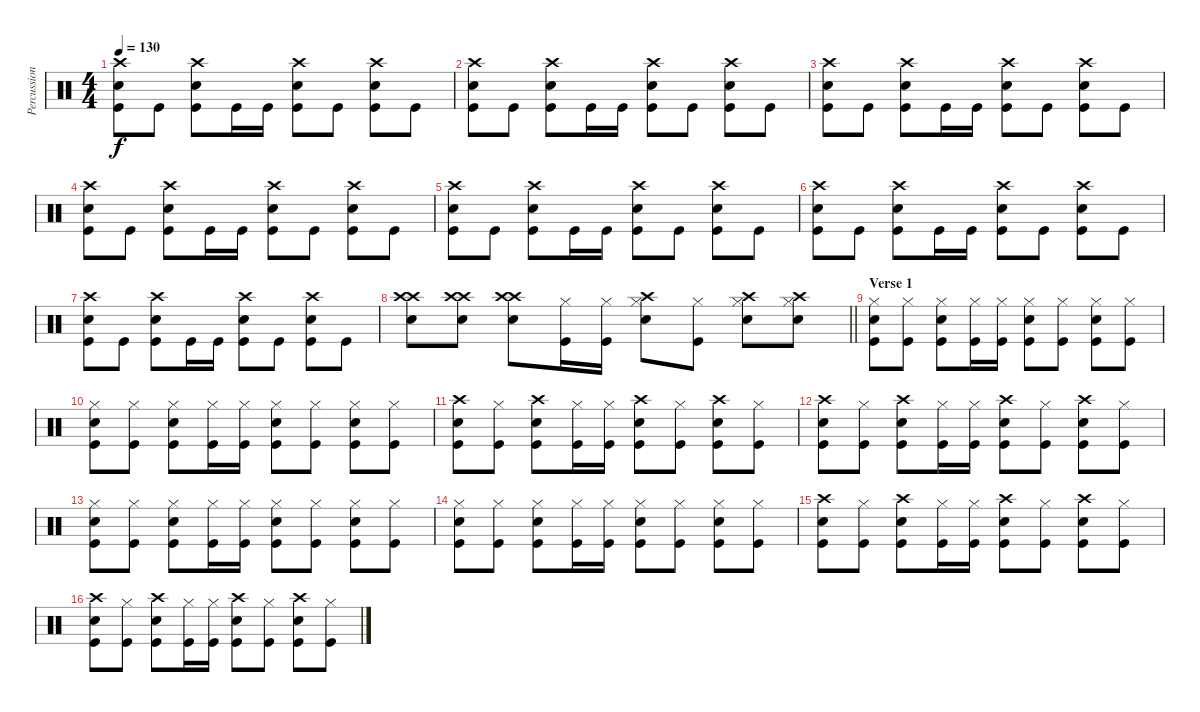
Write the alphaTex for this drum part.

\track ("Percussions" "Percussion") {instrument percussion}
\staff {score}
\articulation defaults
\ts (4 4)
\tempo 130
\clef neutral
\ks c
("Crash high (hit)" "Kick (hit)" "Snare (hit) 2").8{dy f} "Kick (hit)".8 ("Crash high (hit)" "Kick (hit)" "Snare (hit) 2").8 "Kick (hit)".16 "Kick (hit)".16 ("Crash high (hit)" "Kick (hit)" "Snare (hit) 2").8 "Kick (hit)".8 ("Crash high (hit)" "Kick (hit)" "Snare (hit) 2").8 "Kick (hit)".8 |
("Crash high (hit)" "Kick (hit)" "Snare (hit) 2").8 "Kick (hit)".8 ("Crash high (hit)" "Kick (hit)" "Snare (hit) 2").8 "Kick (hit)".16 "Kick (hit)".16 ("Crash high (hit)" "Kick (hit)" "Snare (hit) 2").8 "Kick (hit)".8 ("Crash high (hit)" "Kick (hit)" "Snare (hit) 2").8 "Kick (hit)".8 |
("Crash high (hit)" "Kick (hit)" "Snare (hit) 2").8 "Kick (hit)".8 ("Crash high (hit)" "Kick (hit)" "Snare (hit) 2").8 "Kick (hit)".16 "Kick (hit)".16 ("Crash high (hit)" "Kick (hit)" "Snare (hit) 2").8 "Kick (hit)".8 ("Crash high (hit)" "Kick (hit)" "Snare (hit) 2").8 "Kick (hit)".8 |
("Crash high (hit)" "Kick (hit)" "Snare (hit) 2").8 "Kick (hit)".8 ("Crash high (hit)" "Kick (hit)" "Snare (hit) 2").8 "Kick (hit)".16 "Kick (hit)".16 ("Crash high (hit)" "Kick (hit)" "Snare (hit) 2").8 "Kick (hit)".8 ("Crash high (hit)" "Kick (hit)" "Snare (hit) 2").8 "Kick (hit)".8 |
("Crash high (hit)" "Kick (hit)" "Snare (hit) 2").8 "Kick (hit)".8 ("Crash high (hit)" "Kick (hit)" "Snare (hit) 2").8 "Kick (hit)".16 "Kick (hit)".16 ("Crash high (hit)" "Kick (hit)" "Snare (hit) 2").8 "Kick (hit)".8 ("Crash high (hit)" "Kick (hit)" "Snare (hit) 2").8 "Kick (hit)".8 |
("Crash high (hit)" "Kick (hit)" "Snare (hit) 2").8 "Kick (hit)".8 ("Crash high (hit)" "Kick (hit)" "Snare (hit) 2").8 "Kick (hit)".16 "Kick (hit)".16 ("Crash high (hit)" "Kick (hit)" "Snare (hit) 2").8 "Kick (hit)".8 ("Crash high (hit)" "Kick (hit)" "Snare (hit) 2").8 "Kick (hit)".8 |
("Crash high (hit)" "Kick (hit)" "Snare (hit) 2").8 "Kick (hit)".8 ("Crash high (hit)" "Kick (hit)" "Snare (hit) 2").8 "Kick (hit)".16 "Kick (hit)".16 ("Crash high (hit)" "Kick (hit)" "Snare (hit) 2").8 "Kick (hit)".8 ("Crash high (hit)" "Kick (hit)" "Snare (hit) 2").8 "Kick (hit)".8 |
\barLineRight lightlight
("Crash high (hit)" "Snare (hit) 2" "Crash high (hit)").8 ("Crash high (hit)" "Snare (hit) 2" "Crash high (hit)").8 ("Crash high (hit)" "Snare (hit) 2" "Crash high (hit)").8 ("Kick (hit)" "Hi-Hat (closed)").16 ("Kick (hit)" "Hi-Hat (closed)").16 ("Hi-Hat (closed)" "Snare (hit) 2" "Crash high (hit)").8 ("Kick (hit)" "Hi-Hat (closed)").8 ("Hi-Hat (closed)" "Snare (hit) 2" "Crash high (hit)").8 ("Hi-Hat (closed)" "Snare (hit) 2" "Crash high (hit)").8 |
\section ("" "Verse 1")
("Snare (hit) 2" "Kick (hit)" "Hi-Hat (closed)").8 ("Kick (hit)" "Hi-Hat (closed)").8 ("Snare (hit) 2" "Kick (hit)" "Hi-Hat (closed)").8 ("Kick (hit)" "Hi-Hat (closed)").16 ("Kick (hit)" "Hi-Hat (closed)").16 ("Snare (hit) 2" "Kick (hit)" "Hi-Hat (closed)").8 ("Kick (hit)" "Hi-Hat (closed)").8 ("Snare (hit) 2" "Kick (hit)" "Hi-Hat (closed)").8 ("Kick (hit)" "Hi-Hat (closed)").8 |
("Snare (hit) 2" "Kick (hit)" "Hi-Hat (closed)").8 ("Kick (hit)" "Hi-Hat (closed)").8 ("Snare (hit) 2" "Kick (hit)" "Hi-Hat (closed)").8 ("Kick (hit)" "Hi-Hat (closed)").16 ("Kick (hit)" "Hi-Hat (closed)").16 ("Snare (hit) 2" "Kick (hit)" "Hi-Hat (closed)").8 ("Kick (hit)" "Hi-Hat (closed)").8 ("Snare (hit) 2" "Kick (hit)" "Hi-Hat (closed)").8 ("Kick (hit)" "Hi-Hat (closed)").8 |
("Snare (hit) 2" "Kick (hit)" "Crash high (hit)").8 ("Kick (hit)" "Hi-Hat (closed)").8 ("Snare (hit) 2" "Kick (hit)" "Crash high (hit)").8 ("Kick (hit)" "Hi-Hat (closed)").16 ("Kick (hit)" "Hi-Hat (closed)").16 ("Snare (hit) 2" "Kick (hit)" "Crash high (hit)").8 ("Kick (hit)" "Hi-Hat (closed)").8 ("Snare (hit) 2" "Kick (hit)" "Crash high (hit)").8 ("Kick (hit)" "Hi-Hat (closed)").8 |
("Snare (hit) 2" "Kick (hit)" "Crash high (hit)").8 ("Kick (hit)" "Hi-Hat (closed)").8 ("Snare (hit) 2" "Kick (hit)" "Crash high (hit)").8 ("Kick (hit)" "Hi-Hat (closed)").16 ("Kick (hit)" "Hi-Hat (closed)").16 ("Snare (hit) 2" "Kick (hit)" "Crash high (hit)").8 ("Kick (hit)" "Hi-Hat (closed)").8 ("Snare (hit) 2" "Kick (hit)" "Crash high (hit)").8 ("Kick (hit)" "Hi-Hat (closed)").8 |
("Snare (hit) 2" "Kick (hit)" "Hi-Hat (closed)").8 ("Kick (hit)" "Hi-Hat (closed)").8 ("Snare (hit) 2" "Kick (hit)" "Hi-Hat (closed)").8 ("Kick (hit)" "Hi-Hat (closed)").16 ("Kick (hit)" "Hi-Hat (closed)").16 ("Snare (hit) 2" "Kick (hit)" "Hi-Hat (closed)").8 ("Kick (hit)" "Hi-Hat (closed)").8 ("Snare (hit) 2" "Kick (hit)" "Hi-Hat (closed)").8 ("Kick (hit)" "Hi-Hat (closed)").8 |
("Snare (hit) 2" "Kick (hit)" "Hi-Hat (closed)").8 ("Kick (hit)" "Hi-Hat (closed)").8 ("Snare (hit) 2" "Kick (hit)" "Hi-Hat (closed)").8 ("Kick (hit)" "Hi-Hat (closed)").16 ("Kick (hit)" "Hi-Hat (closed)").16 ("Snare (hit) 2" "Kick (hit)" "Hi-Hat (closed)").8 ("Kick (hit)" "Hi-Hat (closed)").8 ("Snare (hit) 2" "Kick (hit)" "Hi-Hat (closed)").8 ("Kick (hit)" "Hi-Hat (closed)").8 |
("Snare (hit) 2" "Kick (hit)" "Crash high (hit)").8 ("Kick (hit)" "Hi-Hat (closed)").8 ("Snare (hit) 2" "Kick (hit)" "Crash high (hit)").8 ("Kick (hit)" "Hi-Hat (closed)").16 ("Kick (hit)" "Hi-Hat (closed)").16 ("Snare (hit) 2" "Kick (hit)" "Crash high (hit)").8 ("Kick (hit)" "Hi-Hat (closed)").8 ("Snare (hit) 2" "Kick (hit)" "Crash high (hit)").8 ("Kick (hit)" "Hi-Hat (closed)").8 |
("Snare (hit) 2" "Kick (hit)" "Crash high (hit)").8 ("Kick (hit)" "Hi-Hat (closed)").8 ("Snare (hit) 2" "Kick (hit)" "Crash high (hit)").8 ("Kick (hit)" "Hi-Hat (closed)").16 ("Kick (hit)" "Hi-Hat (closed)").16 ("Snare (hit) 2" "Kick (hit)" "Crash high (hit)").8 ("Kick (hit)" "Hi-Hat (closed)").8 ("Snare (hit) 2" "Kick (hit)" "Crash high (hit)").8 ("Kick (hit)" "Hi-Hat (closed)").8
